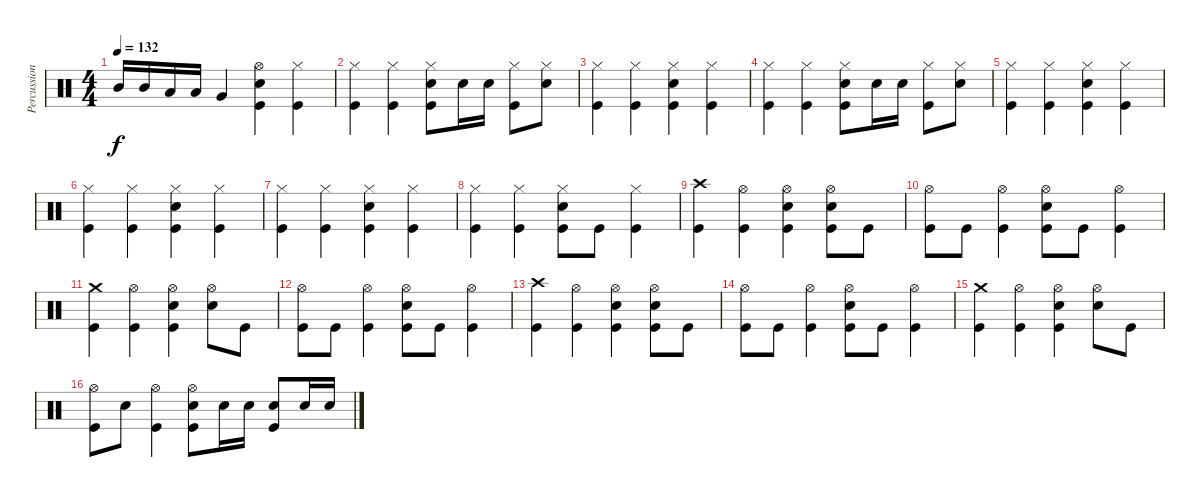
\track ("Percussion" "Percussion") {instrument percussion}
\staff {score}
\articulation defaults
\ts (4 4)
\tempo 132
\clef neutral
\ks c "Mid Tom (hit)".16{dy f} "Mid Tom (hit)".16 "Low Tom (hit)".16 "Low Tom (hit)".16 "Very Low Tom (hit)".4
("Hi-Hat (open)" "Electric Snare (hit)" "Kick (hit)").4 ("Hi-Hat (closed)" "Kick (hit)").4 |
("Hi-Hat (closed)" "Kick (hit)").4 ("Hi-Hat (closed)" "Kick (hit)").4 ("Hi-Hat (closed)" "Electric Snare (hit)" "Kick (hit)").8 "Electric Snare (hit)".16 "Electric Snare (hit)".16 ("Hi-Hat (closed)" "Kick (hit)").8 ("Hi-Hat (closed)" "Electric Snare (hit)").8 |
("Hi-Hat (closed)" "Kick (hit)").4 ("Hi-Hat (closed)" "Kick (hit)").4 ("Hi-Hat (closed)" "Electric Snare (hit)" "Kick (hit)").4 ("Hi-Hat (closed)" "Kick (hit)").4 |
("Hi-Hat (closed)" "Kick (hit)").4 ("Hi-Hat (closed)" "Kick (hit)").4 ("Hi-Hat (closed)" "Electric Snare (hit)" "Kick (hit)").8 "Electric Snare (hit)".16 "Electric Snare (hit)".16 ("Hi-Hat (closed)" "Kick (hit)").8 ("Hi-Hat (closed)" "Electric Snare (hit)").8 |
("Hi-Hat (closed)" "Kick (hit)").4 ("Hi-Hat (closed)" "Kick (hit)").4 ("Hi-Hat (closed)" "Electric Snare (hit)" "Kick (hit)").4 ("Hi-Hat (closed)" "Kick (hit)").4 |
("Hi-Hat (closed)" "Kick (hit)").4 ("Hi-Hat (closed)" "Kick (hit)").4 ("Hi-Hat (closed)" "Electric Snare (hit)" "Kick (hit)").4 ("Hi-Hat (closed)" "Kick (hit)").4 |
("Hi-Hat (closed)" "Kick (hit)").4 ("Hi-Hat (closed)" "Kick (hit)").4 ("Hi-Hat (closed)" "Electric Snare (hit)" "Kick (hit)").4 ("Hi-Hat (closed)" "Kick (hit)").4 |
("Hi-Hat (closed)" "Kick (hit)").4 ("Hi-Hat (closed)" "Kick (hit)").4 ("Hi-Hat (closed)" "Electric Snare (hit)" "Kick (hit)").8 "Kick (hit)".8 ("Hi-Hat (closed)" "Kick (hit)").4 |
("Crash high (hit)" "Kick (hit)").4 ("Hi-Hat (open)" "Kick (hit)").4 ("Hi-Hat (open)" "Electric Snare (hit)" "Kick (hit)").4 ("Hi-Hat (open)" "Electric Snare (hit)" "Kick (hit)").8 "Kick (hit)".8 |
("Hi-Hat (open)" "Kick (hit)").8 "Kick (hit)".8 ("Hi-Hat (open)" "Kick (hit)").4 ("Hi-Hat (open)" "Electric Snare (hit)" "Kick (hit)").8 "Kick (hit)".8 ("Hi-Hat (open)" "Kick (hit)").4 |
("Crash medium (hit)" "Kick (hit)").4 ("Hi-Hat (open)" "Kick (hit)").4 ("Hi-Hat (open)" "Electric Snare (hit)" "Kick (hit)").4 ("Hi-Hat (open)" "Electric Snare (hit)").8 "Kick (hit)".8 |
("Hi-Hat (open)" "Kick (hit)").8 "Kick (hit)".8 ("Hi-Hat (open)" "Kick (hit)").4 ("Hi-Hat (open)" "Electric Snare (hit)" "Kick (hit)").8 "Kick (hit)".8 ("Hi-Hat (open)" "Kick (hit)").4 |
("Crash high (hit)" "Kick (hit)").4 ("Hi-Hat (open)" "Kick (hit)").4 ("Hi-Hat (open)" "Electric Snare (hit)" "Kick (hit)").4 ("Hi-Hat (open)" "Electric Snare (hit)" "Kick (hit)").8 "Kick (hit)".8 |
("Hi-Hat (open)" "Kick (hit)").8 "Kick (hit)".8 ("Hi-Hat (open)" "Kick (hit)").4 ("Hi-Hat (open)" "Electric Snare (hit)" "Kick (hit)").8 "Kick (hit)".8 ("Hi-Hat (open)" "Kick (hit)").4 |
("Crash medium (hit)" "Kick (hit)").4 ("Hi-Hat (open)" "Kick (hit)").4 ("Hi-Hat (open)" "Electric Snare (hit)" "Kick (hit)").4 ("Hi-Hat (open)" "Electric Snare (hit)").8 "Kick (hit)".8 |
("Hi-Hat (open)" "Kick (hit)").8 "Electric Snare (hit)".8 ("Hi-Hat (open)" "Kick (hit)").4 ("Hi-Hat (open)" "Electric Snare (hit)" "Kick (hit)").8 "Electric Snare (hit)".16 "Electric Snare (hit)".16 ("Electric Snare (hit)" "Kick (hit)").8 "Electric Snare (hit)".16 "Electric Snare (hit)".16
